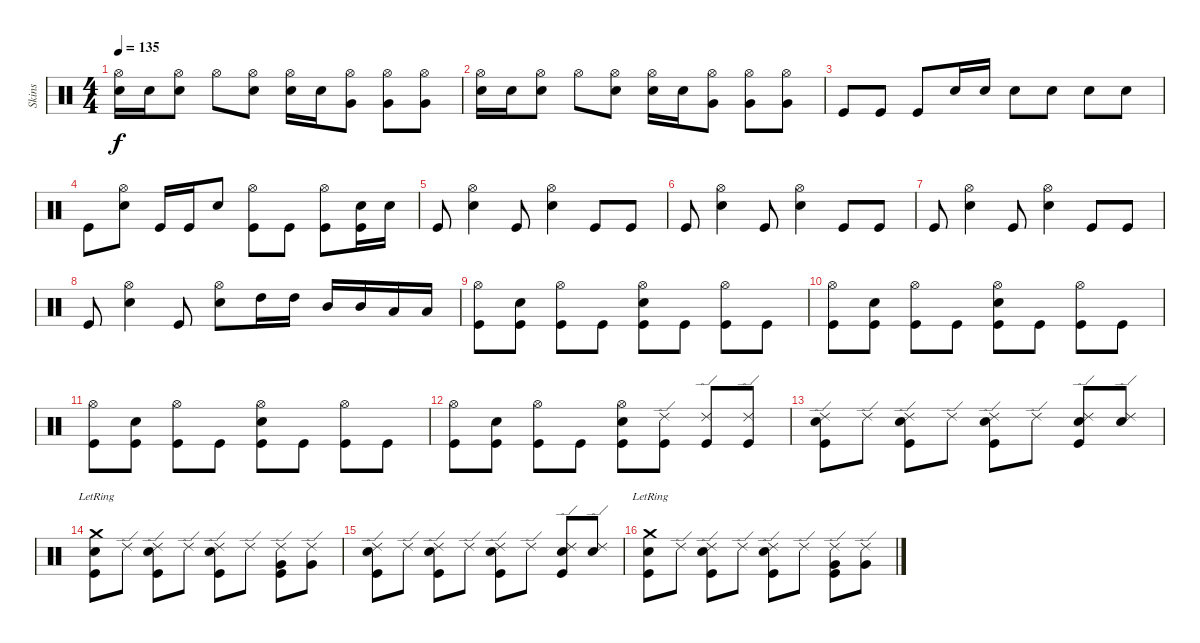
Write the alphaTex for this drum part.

\track ("Skins" "Skins") {instrument percussion}
\staff {score}
\articulation defaults
\ts (4 4)
\tempo 135
\clef neutral
\ks c
("Hi-Hat (open)" "Electric Snare (hit)").16{dy f} "Electric Snare (hit)".16 ("Hi-Hat (open)" "Electric Snare (hit)").8 "Hi-Hat (open)".8 ("Hi-Hat (open)" "Electric Snare (hit)").8 ("Hi-Hat (open)" "Electric Snare (hit)").16 "Electric Snare (hit)".16 ("Hi-Hat (open)" "Very Low Tom (hit)").8 ("Hi-Hat (open)" "Very Low Tom (hit)").8 ("Hi-Hat (open)" "Very Low Tom (hit)").8 |
("Hi-Hat (open)" "Electric Snare (hit)").16 "Electric Snare (hit)".16 ("Hi-Hat (open)" "Electric Snare (hit)").8 "Hi-Hat (open)".8 ("Hi-Hat (open)" "Electric Snare (hit)").8 ("Hi-Hat (open)" "Electric Snare (hit)").16 "Electric Snare (hit)".16 ("Hi-Hat (open)" "Very Low Tom (hit)").8 ("Hi-Hat (open)" "Very Low Tom (hit)").8 ("Hi-Hat (open)" "Very Low Tom (hit)").8 |
"Kick (hit)".8 "Kick (hit)".8 "Kick (hit)".8 "Electric Snare (hit)".16 "Electric Snare (hit)".16 "Electric Snare (hit)".8 "Electric Snare (hit)".8 "Electric Snare (hit)".8 "Electric Snare (hit)".8 |
"Kick (hit)".8 ("Hi-Hat (open)" "Electric Snare (hit)").8 "Kick (hit)".16 "Kick (hit)".16 "Electric Snare (hit)".8 ("Hi-Hat (open)" "Kick (hit)").8 "Kick (hit)".8 ("Hi-Hat (open)" "Kick (hit)").8 ("Electric Snare (hit)" "Kick (hit)").16 "Electric Snare (hit)".16 |
"Kick (hit)".8 ("Hi-Hat (open)" "Electric Snare (hit)").4 "Kick (hit)".8 ("Hi-Hat (open)" "Electric Snare (hit)").4 "Kick (hit)".8 "Kick (hit)".8 |
"Kick (hit)".8 ("Hi-Hat (open)" "Electric Snare (hit)").4 "Kick (hit)".8 ("Hi-Hat (open)" "Electric Snare (hit)").4 "Kick (hit)".8 "Kick (hit)".8 |
"Kick (hit)".8 ("Hi-Hat (open)" "Electric Snare (hit)").4 "Kick (hit)".8 ("Hi-Hat (open)" "Electric Snare (hit)").4 "Kick (hit)".8 "Kick (hit)".8 |
"Kick (hit)".8 ("Hi-Hat (open)" "Electric Snare (hit)").4 "Kick (hit)".8 ("Hi-Hat (open)" "Electric Snare (hit)").8 "High Tom (hit)".16 "High Tom (hit)".16 "Mid Tom (hit)".16 "Mid Tom (hit)".16 "Low Tom (hit)".16 "Low Tom (hit)".16 |
("Hi-Hat (open)" "Kick (hit)").8 ("Electric Snare (hit)" "Kick (hit)").8 ("Hi-Hat (open)" "Kick (hit)").8 "Kick (hit)".8 ("Hi-Hat (open)" "Electric Snare (hit)" "Kick (hit)").8 "Kick (hit)".8 ("Hi-Hat (open)" "Kick (hit)").8 "Kick (hit)".8 |
("Hi-Hat (open)" "Kick (hit)").8 ("Electric Snare (hit)" "Kick (hit)").8 ("Hi-Hat (open)" "Kick (hit)").8 "Kick (hit)".8 ("Hi-Hat (open)" "Electric Snare (hit)" "Kick (hit)").8 "Kick (hit)".8 ("Hi-Hat (open)" "Kick (hit)").8 "Kick (hit)".8 |
("Hi-Hat (open)" "Kick (hit)").8 ("Electric Snare (hit)" "Kick (hit)").8 ("Hi-Hat (open)" "Kick (hit)").8 "Kick (hit)".8 ("Hi-Hat (open)" "Electric Snare (hit)" "Kick (hit)").8 "Kick (hit)".8 ("Hi-Hat (open)" "Kick (hit)").8 "Kick (hit)".8 |
("Hi-Hat (open)" "Kick (hit)").8 ("Electric Snare (hit)" "Kick (hit)").8 ("Hi-Hat (open)" "Kick (hit)").8 "Kick (hit)".8 ("Hi-Hat (open)" "Electric Snare (hit)" "Kick (hit)").8 ("Ride (edge) 2" "Kick (hit)").8 ("Ride (edge) 2" "Kick (hit)").8 ("Ride (edge) 2" "Kick (hit)").8 |
("Ride (edge) 2" "Electric Snare (hit)" "Kick (hit)").8 "Ride (edge) 2".8 ("Ride (edge) 2" "Electric Snare (hit)" "Kick (hit)").8 "Ride (edge) 2".8 ("Ride (edge) 2" "Electric Snare (hit)" "Kick (hit)").8 "Ride (edge) 2".8 ("Ride (edge) 2" "Snare (hit) 2" "Kick (hit)").8 ("Ride (edge) 2" "Snare (hit) 2").8 |
("Crash medium (hit)"{lr} "Electric Snare (hit)" "Kick (hit)").8 "Ride (edge) 2".8 ("Ride (edge) 2" "Electric Snare (hit)" "Kick (hit)").8 "Ride (edge) 2".8 ("Ride (edge) 2" "Electric Snare (hit)" "Kick (hit)").8 "Ride (edge) 2".8 ("Ride (edge) 2" "Very Low Tom (hit)" "Kick (hit)").8 ("Ride (edge) 2" "Very Low Tom (hit)").8 |
("Ride (edge) 2" "Electric Snare (hit)" "Kick (hit)").8 "Ride (edge) 2".8 ("Ride (edge) 2" "Electric Snare (hit)" "Kick (hit)").8 "Ride (edge) 2".8 ("Ride (edge) 2" "Electric Snare (hit)" "Kick (hit)").8 "Ride (edge) 2".8 ("Ride (edge) 2" "Snare (hit) 2" "Kick (hit)").8 ("Ride (edge) 2" "Snare (hit) 2").8 |
("Crash medium (hit)"{lr} "Electric Snare (hit)" "Kick (hit)").8 "Ride (edge) 2".8 ("Ride (edge) 2" "Electric Snare (hit)" "Kick (hit)").8 "Ride (edge) 2".8 ("Ride (edge) 2" "Electric Snare (hit)" "Kick (hit)").8 "Ride (edge) 2".8 ("Ride (edge) 2" "Very Low Tom (hit)" "Kick (hit)").8 ("Ride (edge) 2" "Very Low Tom (hit)").8
